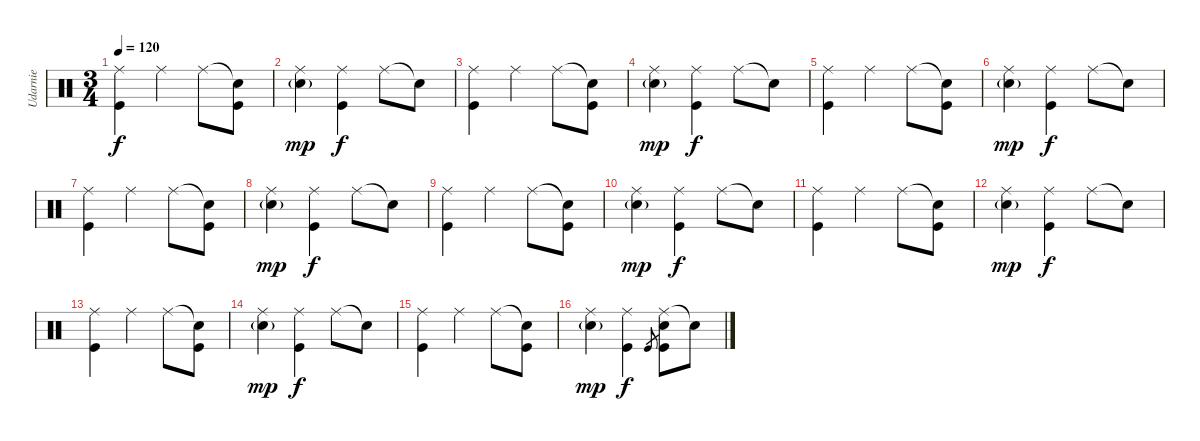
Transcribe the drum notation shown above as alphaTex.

\track ("Udarnie" "Udarnie") {instrument percussion}
\staff {score}
\articulation defaults
\ts (3 4)
\tempo 120
\clef neutral
\ks c
("Ride (middle)" "Kick (hit)").4{dy f} "Ride (middle)".4 "Ride (middle)".8 ("Snare (hit)"{t} "Kick (hit)").8 |
("Ride (middle)" "Electric Snare (hit)"{g}).4{dy mp} ("Ride (middle)" "Kick (hit)").4{dy f} "Ride (middle)".8 "Snare (hit)"{t}.8 |
("Ride (middle)" "Kick (hit)").4 "Ride (middle)".4 "Ride (middle)".8 ("Snare (hit)"{t} "Kick (hit)").8 |
("Ride (middle)" "Electric Snare (hit)"{g}).4{dy mp} ("Ride (middle)" "Kick (hit)").4{dy f} "Ride (middle)".8 "Snare (hit)"{t}.8 |
("Ride (middle)" "Kick (hit)").4 "Ride (middle)".4 "Ride (middle)".8 ("Snare (hit)"{t} "Kick (hit)").8 |
("Ride (middle)" "Electric Snare (hit)"{g}).4{dy mp} ("Ride (middle)" "Kick (hit)").4{dy f} "Ride (middle)".8 "Snare (hit)"{t}.8 |
("Ride (middle)" "Kick (hit)").4 "Ride (middle)".4 "Ride (middle)".8 ("Snare (hit)"{t} "Kick (hit)").8 |
("Ride (middle)" "Electric Snare (hit)"{g}).4{dy mp} ("Ride (middle)" "Kick (hit)").4{dy f} "Ride (middle)".8 "Snare (hit)"{t}.8 |
("Ride (middle)" "Kick (hit)").4 "Ride (middle)".4 "Ride (middle)".8 ("Snare (hit)"{t} "Kick (hit)").8 |
("Ride (middle)" "Electric Snare (hit)"{g}).4{dy mp} ("Ride (middle)" "Kick (hit)").4{dy f} "Ride (middle)".8 "Snare (hit)"{t}.8 |
("Ride (middle)" "Kick (hit)").4 "Ride (middle)".4 "Ride (middle)".8 ("Snare (hit)"{t} "Kick (hit)").8 |
("Ride (middle)" "Electric Snare (hit)"{g}).4{dy mp} ("Ride (middle)" "Kick (hit)").4{dy f} "Ride (middle)".8 "Snare (hit)"{t}.8 |
("Ride (middle)" "Kick (hit)").4 "Ride (middle)".4 "Ride (middle)".8 ("Snare (hit)"{t} "Kick (hit)").8 |
("Ride (middle)" "Electric Snare (hit)"{g}).4{dy mp} ("Ride (middle)" "Kick (hit)").4{dy f} "Ride (middle)".8 "Snare (hit)"{t}.8 |
("Ride (middle)" "Kick (hit)").4 "Ride (middle)".4 "Ride (middle)".8 ("Snare (hit)"{t} "Kick (hit)").8 |
("Ride (middle)" "Electric Snare (hit)"{g}).4{dy mp} ("Ride (middle)" "Kick (hit)").4{dy f} "Kick (hit)".8{gr} ("Ride (middle)" "Kick (hit)" "Electric Snare (hit)").8 "Snare (hit)"{t}.8
